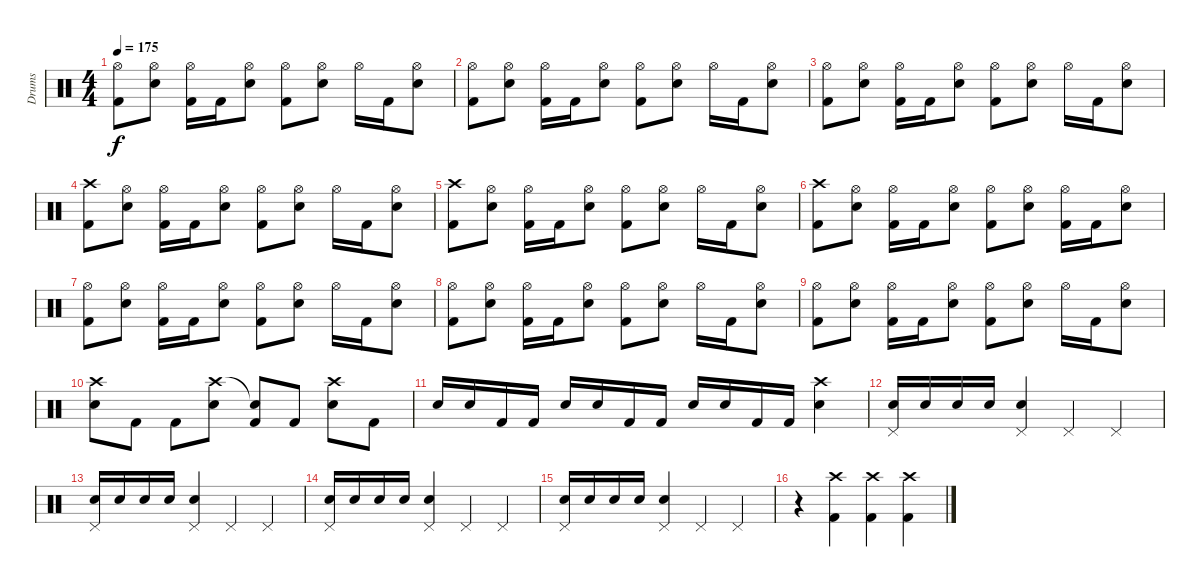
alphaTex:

\track ("Drums" "Drums") {instrument percussion}
\staff {score}
\articulation defaults
\ts (4 4)
\tempo 175
\clef neutral
\ks c
("Hi-Hat (open)" "Kick (hit) 2").8{dy f} ("Hi-Hat (open)" "Snare (hit) 2").8 ("Hi-Hat (open)" "Kick (hit) 2").16 "Kick (hit) 2".16 ("Hi-Hat (open)" "Snare (hit) 2").8 ("Hi-Hat (open)" "Kick (hit) 2").8 ("Hi-Hat (open)" "Snare (hit) 2").8 "Hi-Hat (open)".16 "Kick (hit) 2".16 ("Hi-Hat (open)" "Snare (hit) 2").8 |
("Hi-Hat (open)" "Kick (hit) 2").8 ("Hi-Hat (open)" "Snare (hit) 2").8 ("Hi-Hat (open)" "Kick (hit) 2").16 "Kick (hit) 2".16 ("Hi-Hat (open)" "Snare (hit) 2").8 ("Hi-Hat (open)" "Kick (hit) 2").8 ("Hi-Hat (open)" "Snare (hit) 2").8 "Hi-Hat (open)".16 "Kick (hit) 2".16 ("Hi-Hat (open)" "Snare (hit) 2").8 |
("Hi-Hat (open)" "Kick (hit) 2").8 ("Hi-Hat (open)" "Snare (hit) 2").8 ("Hi-Hat (open)" "Kick (hit) 2").16 "Kick (hit) 2".16 ("Hi-Hat (open)" "Snare (hit) 2").8 ("Hi-Hat (open)" "Kick (hit) 2").8 ("Hi-Hat (open)" "Snare (hit) 2").8 "Hi-Hat (open)".16 "Kick (hit) 2".16 ("Hi-Hat (open)" "Snare (hit) 2").8 |
("Crash high (hit)" "Kick (hit) 2").8 ("Hi-Hat (open)" "Snare (hit) 2").8 ("Hi-Hat (open)" "Kick (hit) 2").16 "Kick (hit) 2".16 ("Hi-Hat (open)" "Snare (hit) 2").8 ("Hi-Hat (open)" "Kick (hit) 2").8 ("Hi-Hat (open)" "Snare (hit) 2").8 "Hi-Hat (open)".16 "Kick (hit) 2".16 ("Hi-Hat (open)" "Snare (hit) 2").8 |
("Crash high (hit)" "Kick (hit) 2").8 ("Hi-Hat (open)" "Snare (hit) 2").8 ("Hi-Hat (open)" "Kick (hit) 2").16 "Kick (hit) 2".16 ("Hi-Hat (open)" "Snare (hit) 2").8 ("Hi-Hat (open)" "Kick (hit) 2").8 ("Hi-Hat (open)" "Snare (hit) 2").8 "Hi-Hat (open)".16 "Kick (hit) 2".16 ("Hi-Hat (open)" "Snare (hit) 2").8 |
("Crash high (hit)" "Kick (hit) 2").8 ("Hi-Hat (open)" "Snare (hit) 2").8 ("Hi-Hat (open)" "Kick (hit) 2").16 "Kick (hit) 2".16 ("Hi-Hat (open)" "Snare (hit) 2").8 ("Hi-Hat (open)" "Kick (hit) 2").8 ("Hi-Hat (open)" "Snare (hit) 2").8 ("Hi-Hat (open)" "Kick (hit) 2").16 "Kick (hit) 2".16 ("Hi-Hat (open)" "Snare (hit) 2").8 |
("Hi-Hat (open)" "Kick (hit) 2").8 ("Hi-Hat (open)" "Snare (hit) 2").8 ("Hi-Hat (open)" "Kick (hit) 2").16 "Kick (hit) 2".16 ("Hi-Hat (open)" "Snare (hit) 2").8 ("Hi-Hat (open)" "Kick (hit) 2").8 ("Hi-Hat (open)" "Snare (hit) 2").8 "Hi-Hat (open)".16 "Kick (hit) 2".16 ("Hi-Hat (open)" "Snare (hit) 2").8 |
("Hi-Hat (open)" "Kick (hit) 2").8 ("Hi-Hat (open)" "Snare (hit) 2").8 ("Hi-Hat (open)" "Kick (hit) 2").16 "Kick (hit) 2".16 ("Hi-Hat (open)" "Snare (hit) 2").8 ("Hi-Hat (open)" "Kick (hit) 2").8 ("Hi-Hat (open)" "Snare (hit) 2").8 "Hi-Hat (open)".16 "Kick (hit) 2".16 ("Hi-Hat (open)" "Snare (hit) 2").8 |
("Hi-Hat (open)" "Kick (hit) 2").8 ("Hi-Hat (open)" "Snare (hit) 2").8 ("Hi-Hat (open)" "Kick (hit) 2").16 "Kick (hit) 2".16 ("Hi-Hat (open)" "Snare (hit) 2").8 ("Hi-Hat (open)" "Kick (hit) 2").8 ("Hi-Hat (open)" "Snare (hit) 2").8 "Hi-Hat (open)".16 "Kick (hit) 2".16 ("Hi-Hat (open)" "Snare (hit) 2").8 |
("Crash high (hit)" "Snare (hit) 2").8 "Kick (hit) 2".8 "Kick (hit) 2".8 ("Crash high (hit)" "Snare (hit) 2").8 ("Snare (hit)"{t} "Kick (hit) 2").8 "Kick (hit) 2".8 ("Crash high (hit)" "Snare (hit) 2").8 "Kick (hit) 2".8 |
"Snare (hit) 2".16 "Snare (hit) 2".16 "Kick (hit) 2".16 "Kick (hit) 2".16 "Snare (hit) 2".16 "Snare (hit) 2".16 "Kick (hit) 2".16 "Kick (hit) 2".16 "Snare (hit) 2".16 "Snare (hit) 2".16 "Kick (hit) 2".16 "Kick (hit) 2".16 ("Crash high (hit)" "Snare (hit) 2").4 |
("Pedal Hi-Hat (hit)" "Snare (hit) 2").16 "Snare (hit) 2".16 "Snare (hit) 2".16 "Snare (hit) 2".16 ("Pedal Hi-Hat (hit)" "Snare (hit) 2").4 "Pedal Hi-Hat (hit)".4 "Pedal Hi-Hat (hit)".4 |
("Pedal Hi-Hat (hit)" "Snare (hit) 2").16 "Snare (hit) 2".16 "Snare (hit) 2".16 "Snare (hit) 2".16 ("Pedal Hi-Hat (hit)" "Snare (hit) 2").4 "Pedal Hi-Hat (hit)".4 "Pedal Hi-Hat (hit)".4 |
("Pedal Hi-Hat (hit)" "Snare (hit) 2").16 "Snare (hit) 2".16 "Snare (hit) 2".16 "Snare (hit) 2".16 ("Pedal Hi-Hat (hit)" "Snare (hit) 2").4 "Pedal Hi-Hat (hit)".4 "Pedal Hi-Hat (hit)".4 |
("Pedal Hi-Hat (hit)" "Snare (hit) 2").16 "Snare (hit) 2".16 "Snare (hit) 2".16 "Snare (hit) 2".16 ("Pedal Hi-Hat (hit)" "Snare (hit) 2").4 "Pedal Hi-Hat (hit)".4 "Pedal Hi-Hat (hit)".4 |
r.4 ("Crash high (hit)" "Kick (hit) 2").4 ("Crash high (hit)" "Kick (hit) 2").4 ("Crash high (hit)" "Kick (hit) 2").4
